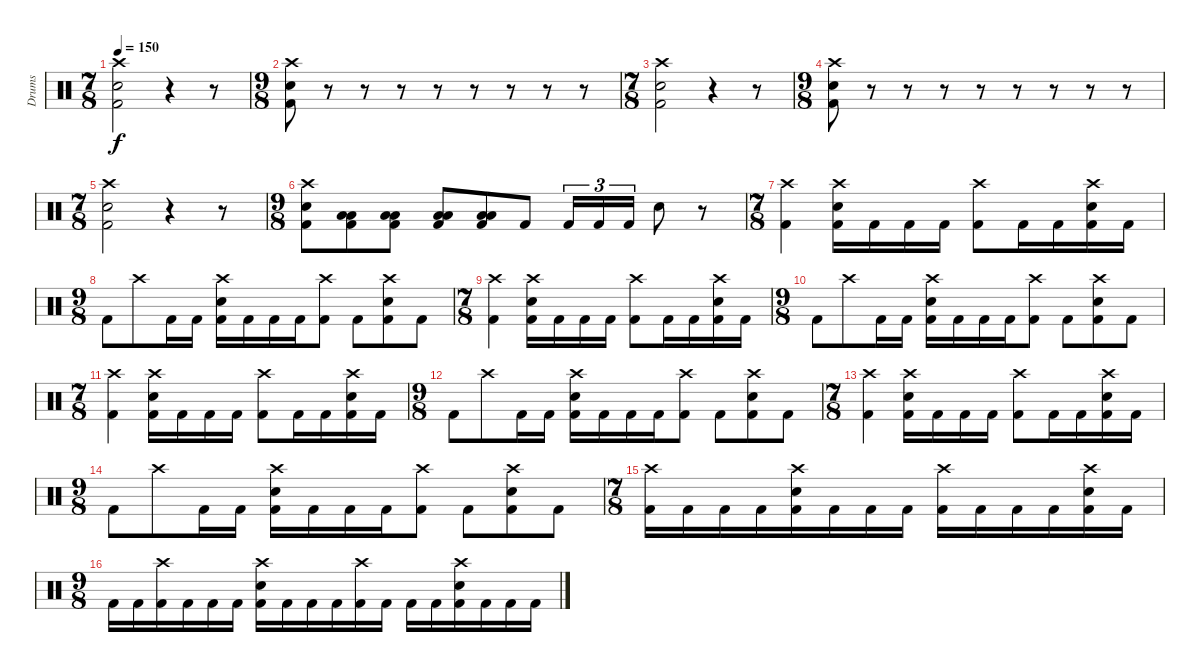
\track ("Drums" "Drums") {instrument percussion}
\staff {score}
\articulation defaults
\ts (7 8)
\tempo 150
\clef neutral
\ks c
("Crash high (hit)" "Electric Snare (hit)" "Kick (hit) 2").2{dy f} r.4 r.8 |
\ts (9 8)
("Crash high (hit)" "Electric Snare (hit)" "Kick (hit) 2").8 r.8 r.8 r.8 r.8 r.8 r.8 r.8 r.8 |
\ts (7 8)
("Crash high (hit)" "Electric Snare (hit)" "Kick (hit) 2").2 r.4 r.8 |
\ts (9 8)
("Crash high (hit)" "Electric Snare (hit)" "Kick (hit) 2").8 r.8 r.8 r.8 r.8 r.8 r.8 r.8 r.8 |
\ts (7 8)
("Crash high (hit)" "Electric Snare (hit)" "Kick (hit) 2").2 r.4 r.8 |
\ts (9 8)
("Crash high (hit)" "Electric Snare (hit)" "Kick (hit) 2").8 ("Low Tom (hit)" "Low Floor Tom (hit)" "Kick (hit) 2").8 ("Low Tom (hit)" "Low Floor Tom (hit)" "Kick (hit) 2").8 ("Low Tom (hit)" "Low Floor Tom (hit)" "Kick (hit) 2").8 ("Low Tom (hit)" "Low Floor Tom (hit)" "Kick (hit) 2").8 "Kick (hit) 2".8 "Kick (hit) 2".16{tu (3 2)} "Kick (hit) 2".16{tu (3 2)} "Kick (hit) 2".16{tu (3 2)} "Electric Snare (hit)".8 r.8 |
\ts (7 8)
("Crash high (hit)" "Kick (hit) 2").4 ("Crash high (hit)" "Electric Snare (hit)" "Kick (hit) 2").16 "Kick (hit) 2".16 "Kick (hit) 2".16 "Kick (hit) 2".16 ("Crash high (hit)" "Kick (hit) 2").8 "Kick (hit) 2".16 "Kick (hit) 2".16 ("Crash high (hit)" "Electric Snare (hit)" "Kick (hit) 2").16 "Kick (hit) 2".16 |
\ts (9 8)
"Kick (hit) 2".8 "Crash high (hit)".8 "Kick (hit) 2".16 "Kick (hit) 2".16 ("Crash high (hit)" "Electric Snare (hit)" "Kick (hit) 2").16 "Kick (hit) 2".16 "Kick (hit) 2".16 "Kick (hit) 2".16 ("Crash high (hit)" "Kick (hit) 2").8 "Kick (hit) 2".8 ("Crash high (hit)" "Electric Snare (hit)" "Kick (hit) 2").8 "Kick (hit) 2".8 |
\ts (7 8)
("Crash high (hit)" "Kick (hit) 2").4 ("Crash high (hit)" "Electric Snare (hit)" "Kick (hit) 2").16 "Kick (hit) 2".16 "Kick (hit) 2".16 "Kick (hit) 2".16 ("Crash high (hit)" "Kick (hit) 2").8 "Kick (hit) 2".16 "Kick (hit) 2".16 ("Crash high (hit)" "Electric Snare (hit)" "Kick (hit) 2").16 "Kick (hit) 2".16 |
\ts (9 8)
"Kick (hit) 2".8 "Crash high (hit)".8 "Kick (hit) 2".16 "Kick (hit) 2".16 ("Crash high (hit)" "Electric Snare (hit)" "Kick (hit) 2").16 "Kick (hit) 2".16 "Kick (hit) 2".16 "Kick (hit) 2".16 ("Crash high (hit)" "Kick (hit) 2").8 "Kick (hit) 2".8 ("Crash high (hit)" "Electric Snare (hit)" "Kick (hit) 2").8 "Kick (hit) 2".8 |
\ts (7 8)
("Crash high (hit)" "Kick (hit) 2").4 ("Crash high (hit)" "Electric Snare (hit)" "Kick (hit) 2").16 "Kick (hit) 2".16 "Kick (hit) 2".16 "Kick (hit) 2".16 ("Crash high (hit)" "Kick (hit) 2").8 "Kick (hit) 2".16 "Kick (hit) 2".16 ("Crash high (hit)" "Electric Snare (hit)" "Kick (hit) 2").16 "Kick (hit) 2".16 |
\ts (9 8)
"Kick (hit) 2".8 "Crash high (hit)".8 "Kick (hit) 2".16 "Kick (hit) 2".16 ("Crash high (hit)" "Electric Snare (hit)" "Kick (hit) 2").16 "Kick (hit) 2".16 "Kick (hit) 2".16 "Kick (hit) 2".16 ("Crash high (hit)" "Kick (hit) 2").8 "Kick (hit) 2".8 ("Crash high (hit)" "Electric Snare (hit)" "Kick (hit) 2").8 "Kick (hit) 2".8 |
\ts (7 8)
("Crash high (hit)" "Kick (hit) 2").4 ("Crash high (hit)" "Electric Snare (hit)" "Kick (hit) 2").16 "Kick (hit) 2".16 "Kick (hit) 2".16 "Kick (hit) 2".16 ("Crash high (hit)" "Kick (hit) 2").8 "Kick (hit) 2".16 "Kick (hit) 2".16 ("Crash high (hit)" "Electric Snare (hit)" "Kick (hit) 2").16 "Kick (hit) 2".16 |
\ts (9 8)
"Kick (hit) 2".8 "Crash high (hit)".8 "Kick (hit) 2".16 "Kick (hit) 2".16 ("Crash high (hit)" "Electric Snare (hit)" "Kick (hit) 2").16 "Kick (hit) 2".16 "Kick (hit) 2".16 "Kick (hit) 2".16 ("Crash high (hit)" "Kick (hit) 2").8 "Kick (hit) 2".8 ("Crash high (hit)" "Electric Snare (hit)" "Kick (hit) 2").8 "Kick (hit) 2".8 |
\ts (7 8)
("Crash high (hit)" "Kick (hit) 2").16 "Kick (hit) 2".16 "Kick (hit) 2".16 "Kick (hit) 2".16 ("Crash high (hit)" "Electric Snare (hit)" "Kick (hit) 2").16 "Kick (hit) 2".16 "Kick (hit) 2".16 "Kick (hit) 2".16 ("Crash high (hit)" "Kick (hit) 2").16 "Kick (hit) 2".16 "Kick (hit) 2".16 "Kick (hit) 2".16 ("Crash high (hit)" "Electric Snare (hit)" "Kick (hit) 2").16 "Kick (hit) 2".16 |
\ts (9 8)
"Kick (hit) 2".16 "Kick (hit) 2".16 ("Crash high (hit)" "Kick (hit) 2").16 "Kick (hit) 2".16 "Kick (hit) 2".16 "Kick (hit) 2".16 ("Crash high (hit)" "Electric Snare (hit)" "Kick (hit) 2").16 "Kick (hit) 2".16 "Kick (hit) 2".16 "Kick (hit) 2".16 ("Crash high (hit)" "Kick (hit) 2").16 "Kick (hit) 2".16 "Kick (hit) 2".16 "Kick (hit) 2".16 ("Crash high (hit)" "Electric Snare (hit)" "Kick (hit) 2").16 "Kick (hit) 2".16 "Kick (hit) 2".16 "Kick (hit) 2".16
